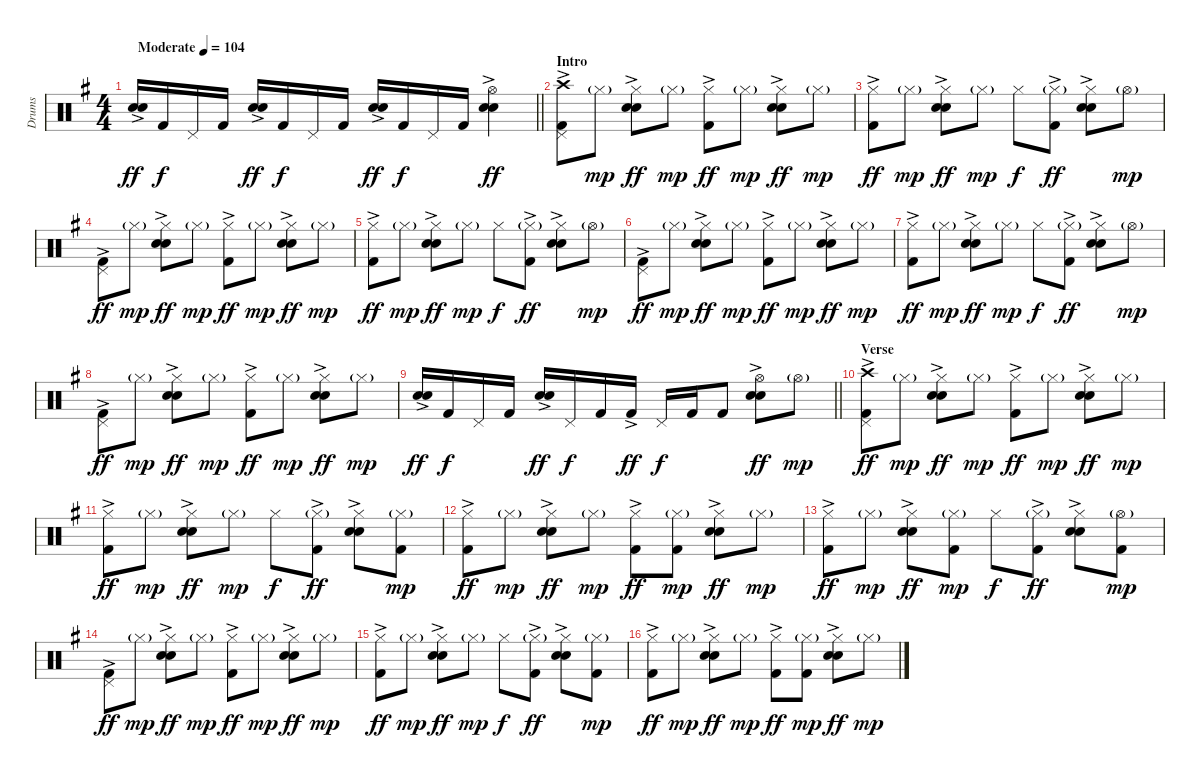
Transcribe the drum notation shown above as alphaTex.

\track ("Drums" "Drums") {instrument percussion}
\staff {score}
\articulation defaults
\ts (4 4)
\tempo (104 "Moderate")
\clef neutral
\barLineRight lightlight
\ks g
("Electric Snare (hit)"{ac} "Snare (hit) 2").16{dy ff} "Kick (hit) 2".16{dy f} "Pedal Hi-Hat (hit)".16 "Kick (hit) 2".16 ("Electric Snare (hit)"{ac} "Snare (hit) 2").16{dy ff} "Kick (hit) 2".16{dy f} "Pedal Hi-Hat (hit)".16 "Kick (hit) 2".16 ("Electric Snare (hit)"{ac} "Snare (hit) 2").16{dy ff} "Kick (hit) 2".16{dy f} "Pedal Hi-Hat (hit)".16 "Kick (hit) 2".16 ("Hi-Hat (open)" "Electric Snare (hit)"{ac} "Snare (hit) 2").4{dy ff} |
\section ("" "Intro")
("Pedal Hi-Hat (hit)" "Crash high (hit)" "Kick (hit) 2"{ac}).8 "Hi-Hat (closed)"{g}.8{dy mp} ("Hi-Hat (closed)" "Electric Snare (hit)"{ac} "Snare (hit) 2").8{dy ff} "Hi-Hat (closed)"{g}.8{dy mp} ("Hi-Hat (closed)" "Kick (hit) 2"{ac}).8{dy ff} "Hi-Hat (closed)"{g}.8{dy mp} ("Hi-Hat (closed)" "Electric Snare (hit)"{ac} "Snare (hit) 2").8{dy ff} "Hi-Hat (closed)"{g}.8{dy mp} |
("Hi-Hat (closed)" "Kick (hit) 2"{ac}).8{dy ff} "Hi-Hat (closed)"{g}.8{dy mp} ("Hi-Hat (closed)" "Electric Snare (hit)"{ac} "Snare (hit) 2").8{dy ff} "Hi-Hat (closed)"{g}.8{dy mp} "Hi-Hat (closed)".8{dy f} ("Hi-Hat (closed)"{g} "Kick (hit) 2"{ac}).8{dy ff} ("Hi-Hat (closed)" "Electric Snare (hit)"{ac} "Snare (hit) 2").8 "Hi-Hat (open)"{g}.8{dy mp} |
("Pedal Hi-Hat (hit)" "Kick (hit) 2"{ac}).8{dy ff} "Hi-Hat (closed)"{g}.8{dy mp} ("Hi-Hat (closed)" "Electric Snare (hit)"{ac} "Snare (hit) 2").8{dy ff} "Hi-Hat (closed)"{g}.8{dy mp} ("Hi-Hat (closed)" "Kick (hit) 2"{ac}).8{dy ff} "Hi-Hat (closed)"{g}.8{dy mp} ("Hi-Hat (closed)" "Electric Snare (hit)"{ac} "Snare (hit) 2").8{dy ff} "Hi-Hat (closed)"{g}.8{dy mp} |
("Hi-Hat (closed)" "Kick (hit) 2"{ac}).8{dy ff} "Hi-Hat (closed)"{g}.8{dy mp} ("Hi-Hat (closed)" "Electric Snare (hit)"{ac} "Snare (hit) 2").8{dy ff} "Hi-Hat (closed)"{g}.8{dy mp} "Hi-Hat (closed)".8{dy f} ("Hi-Hat (closed)"{g} "Kick (hit) 2"{ac}).8{dy ff} ("Hi-Hat (closed)" "Electric Snare (hit)"{ac} "Snare (hit) 2").8 "Hi-Hat (open)"{g}.8{dy mp} |
("Pedal Hi-Hat (hit)" "Kick (hit) 2"{ac}).8{dy ff} "Hi-Hat (closed)"{g}.8{dy mp} ("Hi-Hat (closed)" "Electric Snare (hit)"{ac} "Snare (hit) 2").8{dy ff} "Hi-Hat (closed)"{g}.8{dy mp} ("Hi-Hat (closed)" "Kick (hit) 2"{ac}).8{dy ff} "Hi-Hat (closed)"{g}.8{dy mp} ("Hi-Hat (closed)" "Electric Snare (hit)"{ac} "Snare (hit) 2").8{dy ff} "Hi-Hat (closed)"{g}.8{dy mp} |
("Hi-Hat (closed)" "Kick (hit) 2"{ac}).8{dy ff} "Hi-Hat (closed)"{g}.8{dy mp} ("Hi-Hat (closed)" "Electric Snare (hit)"{ac} "Snare (hit) 2").8{dy ff} "Hi-Hat (closed)"{g}.8{dy mp} "Hi-Hat (closed)".8{dy f} ("Hi-Hat (closed)"{g} "Kick (hit) 2"{ac}).8{dy ff} ("Hi-Hat (closed)" "Electric Snare (hit)"{ac} "Snare (hit) 2").8 "Hi-Hat (open)"{g}.8{dy mp} |
("Pedal Hi-Hat (hit)" "Kick (hit) 2"{ac}).8{dy ff} "Hi-Hat (closed)"{g}.8{dy mp} ("Hi-Hat (closed)" "Electric Snare (hit)"{ac} "Snare (hit) 2").8{dy ff} "Hi-Hat (closed)"{g}.8{dy mp} ("Hi-Hat (closed)" "Kick (hit) 2"{ac}).8{dy ff} "Hi-Hat (closed)"{g}.8{dy mp} ("Hi-Hat (closed)" "Electric Snare (hit)"{ac} "Snare (hit) 2").8{dy ff} "Hi-Hat (closed)"{g}.8{dy mp} |
\barLineRight lightlight
("Electric Snare (hit)"{ac} "Snare (hit) 2").16{dy ff} "Kick (hit) 2".16{dy f} "Pedal Hi-Hat (hit)".16 "Kick (hit) 2".16 ("Electric Snare (hit)"{ac} "Snare (hit) 2").16{dy ff} "Pedal Hi-Hat (hit)".16{dy f} "Kick (hit) 2".16 "Kick (hit) 2"{ac}.16{dy ff} "Pedal Hi-Hat (hit)".16{dy f} "Kick (hit) 2".16 "Kick (hit) 2".8 ("Hi-Hat (open)" "Electric Snare (hit)"{ac} "Snare (hit) 2").8{dy ff} "Hi-Hat (open)"{g}.8{dy mp} |
\section ("" "Verse")
("Pedal Hi-Hat (hit)" "Crash high (hit)" "Kick (hit) 2"{ac}).8{dy ff} "Hi-Hat (closed)"{g}.8{dy mp} ("Hi-Hat (closed)" "Electric Snare (hit)"{ac} "Snare (hit) 2").8{dy ff} "Hi-Hat (closed)"{g}.8{dy mp} ("Hi-Hat (closed)" "Kick (hit) 2"{ac}).8{dy ff} "Hi-Hat (closed)"{g}.8{dy mp} ("Hi-Hat (closed)" "Electric Snare (hit)"{ac} "Snare (hit) 2").8{dy ff} "Hi-Hat (closed)"{g}.8{dy mp} |
("Hi-Hat (closed)" "Kick (hit) 2"{ac}).8{dy ff} "Hi-Hat (closed)"{g}.8{dy mp} ("Hi-Hat (closed)" "Electric Snare (hit)"{ac} "Snare (hit) 2").8{dy ff} "Hi-Hat (closed)"{g}.8{dy mp} "Hi-Hat (closed)".8{dy f} ("Hi-Hat (closed)"{g} "Kick (hit) 2"{ac}).8{dy ff} ("Hi-Hat (closed)" "Electric Snare (hit)"{ac} "Snare (hit) 2").8 ("Hi-Hat (closed)"{g} "Kick (hit) 2").8{dy mp} |
("Hi-Hat (closed)" "Kick (hit) 2"{ac}).8{dy ff} "Hi-Hat (closed)"{g}.8{dy mp} ("Hi-Hat (closed)" "Electric Snare (hit)"{ac} "Snare (hit) 2").8{dy ff} "Hi-Hat (closed)"{g}.8{dy mp} ("Hi-Hat (closed)" "Kick (hit) 2"{ac}).8{dy ff} ("Hi-Hat (closed)"{g} "Kick (hit) 2").8{dy mp} ("Hi-Hat (closed)" "Electric Snare (hit)"{ac} "Snare (hit) 2").8{dy ff} "Hi-Hat (closed)"{g}.8{dy mp} |
("Hi-Hat (closed)" "Kick (hit) 2"{ac}).8{dy ff} "Hi-Hat (closed)"{g}.8{dy mp} ("Hi-Hat (closed)" "Electric Snare (hit)"{ac} "Snare (hit) 2").8{dy ff} ("Hi-Hat (closed)"{g} "Kick (hit) 2").8{dy mp} "Hi-Hat (closed)".8{dy f} ("Hi-Hat (closed)"{g} "Kick (hit) 2"{ac}).8{dy ff} ("Hi-Hat (closed)" "Electric Snare (hit)"{ac} "Snare (hit) 2").8 ("Hi-Hat (open)"{g} "Kick (hit) 2").8{dy mp} |
("Pedal Hi-Hat (hit)" "Kick (hit) 2"{ac}).8{dy ff} "Hi-Hat (closed)"{g}.8{dy mp} ("Hi-Hat (closed)" "Electric Snare (hit)"{ac} "Snare (hit) 2").8{dy ff} "Hi-Hat (closed)"{g}.8{dy mp} ("Hi-Hat (closed)" "Kick (hit) 2"{ac}).8{dy ff} "Hi-Hat (closed)"{g}.8{dy mp} ("Hi-Hat (closed)" "Electric Snare (hit)"{ac} "Snare (hit) 2").8{dy ff} "Hi-Hat (closed)"{g}.8{dy mp} |
("Hi-Hat (closed)" "Kick (hit) 2"{ac}).8{dy ff} "Hi-Hat (closed)"{g}.8{dy mp} ("Hi-Hat (closed)" "Electric Snare (hit)"{ac} "Snare (hit) 2").8{dy ff} "Hi-Hat (closed)"{g}.8{dy mp} "Hi-Hat (closed)".8{dy f} ("Hi-Hat (closed)"{g} "Kick (hit) 2"{ac}).8{dy ff} ("Hi-Hat (closed)" "Electric Snare (hit)"{ac} "Snare (hit) 2").8 ("Hi-Hat (closed)"{g} "Kick (hit) 2").8{dy mp} |
("Hi-Hat (closed)" "Kick (hit) 2"{ac}).8{dy ff} "Hi-Hat (closed)"{g}.8{dy mp} ("Hi-Hat (closed)" "Electric Snare (hit)"{ac} "Snare (hit) 2").8{dy ff} "Hi-Hat (closed)"{g}.8{dy mp} ("Hi-Hat (closed)" "Kick (hit) 2"{ac}).8{dy ff} ("Hi-Hat (closed)"{g} "Kick (hit) 2").8{dy mp} ("Hi-Hat (closed)" "Electric Snare (hit)"{ac} "Snare (hit) 2").8{dy ff} "Hi-Hat (closed)"{g}.8{dy mp}
